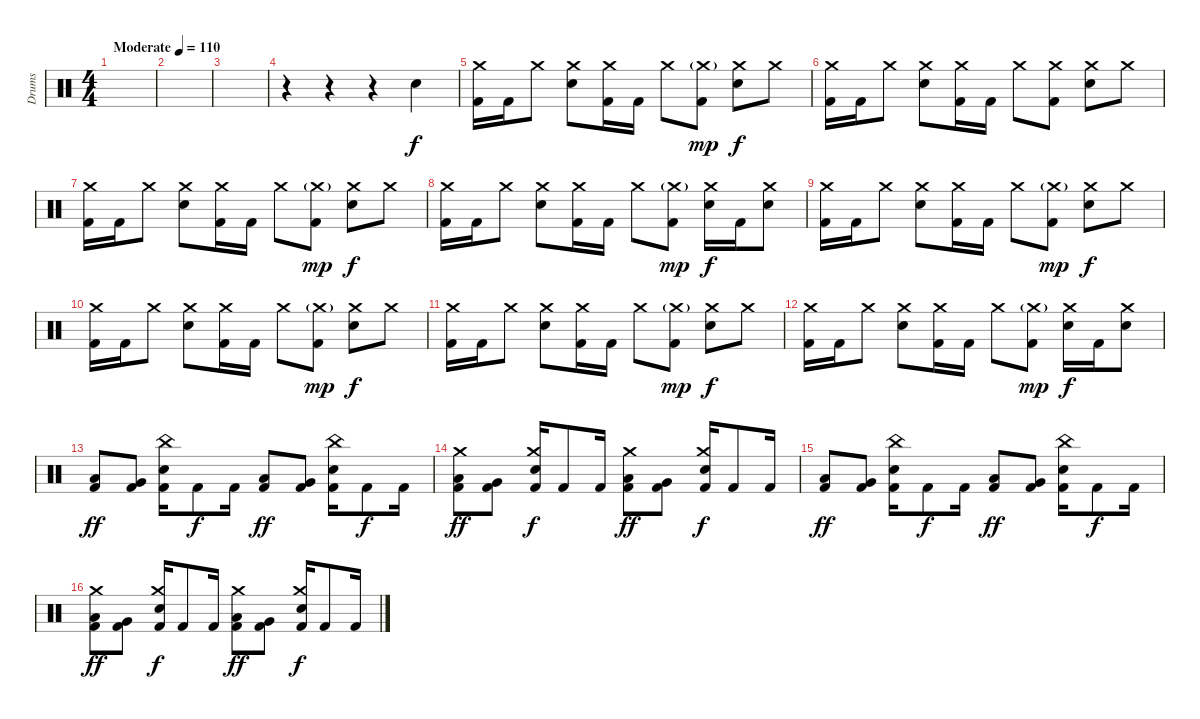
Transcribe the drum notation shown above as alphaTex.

\track ("Drums" "Drums") {instrument percussion}
\staff {score}
\articulation defaults
\ts (4 4)
\tempo (110 "Moderate")
\clef neutral
\ks c
|
|
|
r.4 r.4 r.4 "Snare (hit) 2".4 |
("Crash medium (hit)" "Kick (hit) 2").16 "Kick (hit) 2".16 "Crash medium (hit)".8 ("Crash medium (hit)" "Snare (hit) 2").8 ("Crash medium (hit)" "Kick (hit) 2").16 "Kick (hit) 2".16 "Crash medium (hit)".8 ("Crash medium (hit)"{g} "Kick (hit) 2").8{dy mp} ("Crash medium (hit)" "Snare (hit) 2").8{dy f} "Crash medium (hit)".8 |
("Crash medium (hit)" "Kick (hit) 2").16 "Kick (hit) 2".16 "Crash medium (hit)".8 ("Crash medium (hit)" "Snare (hit) 2").8 ("Crash medium (hit)" "Kick (hit) 2").16 "Kick (hit) 2".16 "Crash medium (hit)".8 ("Crash medium (hit)" "Kick (hit) 2").8 ("Crash medium (hit)" "Snare (hit) 2").8 "Crash medium (hit)".8 |
("Crash medium (hit)" "Kick (hit) 2").16 "Kick (hit) 2".16 "Crash medium (hit)".8 ("Crash medium (hit)" "Snare (hit) 2").8 ("Crash medium (hit)" "Kick (hit) 2").16 "Kick (hit) 2".16 "Crash medium (hit)".8 ("Crash medium (hit)"{g} "Kick (hit) 2").8{dy mp} ("Crash medium (hit)" "Snare (hit) 2").8{dy f} "Crash medium (hit)".8 |
("Crash medium (hit)" "Kick (hit) 2").16 "Kick (hit) 2".16 "Crash medium (hit)".8 ("Crash medium (hit)" "Snare (hit) 2").8 ("Crash medium (hit)" "Kick (hit) 2").16 "Kick (hit) 2".16 "Crash medium (hit)".8 ("Crash medium (hit)"{g} "Kick (hit) 2").8{dy mp} ("Crash medium (hit)" "Snare (hit) 2").16{dy f} "Kick (hit) 2".16 ("Crash medium (hit)" "Snare (hit) 2").8 |
("Crash medium (hit)" "Kick (hit) 2").16 "Kick (hit) 2".16 "Crash medium (hit)".8 ("Crash medium (hit)" "Snare (hit) 2").8 ("Crash medium (hit)" "Kick (hit) 2").16 "Kick (hit) 2".16 "Crash medium (hit)".8 ("Crash medium (hit)"{g} "Kick (hit) 2").8{dy mp} ("Crash medium (hit)" "Snare (hit) 2").8{dy f} "Crash medium (hit)".8 |
("Crash medium (hit)" "Kick (hit) 2").16 "Kick (hit) 2".16 "Crash medium (hit)".8 ("Crash medium (hit)" "Snare (hit) 2").8 ("Crash medium (hit)" "Kick (hit) 2").16 "Kick (hit) 2".16 "Crash medium (hit)".8 ("Crash medium (hit)"{g} "Kick (hit) 2").8{dy mp} ("Crash medium (hit)" "Snare (hit) 2").8{dy f} "Crash medium (hit)".8 |
("Crash medium (hit)" "Kick (hit) 2").16 "Kick (hit) 2".16 "Crash medium (hit)".8 ("Crash medium (hit)" "Snare (hit) 2").8 ("Crash medium (hit)" "Kick (hit) 2").16 "Kick (hit) 2".16 "Crash medium (hit)".8 ("Crash medium (hit)"{g} "Kick (hit) 2").8{dy mp} ("Crash medium (hit)" "Snare (hit) 2").8{dy f} "Crash medium (hit)".8 |
("Crash medium (hit)" "Kick (hit) 2").16 "Kick (hit) 2".16 "Crash medium (hit)".8 ("Crash medium (hit)" "Snare (hit) 2").8 ("Crash medium (hit)" "Kick (hit) 2").16 "Kick (hit) 2".16 "Crash medium (hit)".8 ("Crash medium (hit)"{g} "Kick (hit) 2").8{dy mp} ("Crash medium (hit)" "Snare (hit) 2").16{dy f} "Kick (hit) 2".16 ("Crash medium (hit)" "Snare (hit) 2").8 |
("Low Tom (hit)" "Kick (hit) 2").8{dy ff} ("Very Low Tom (hit)" "Kick (hit) 2").8 ("China (hit)" "Snare (hit) 2" "Kick (hit) 2").16 "Kick (hit) 2".8{dy f} "Kick (hit) 2".16 ("Low Tom (hit)" "Kick (hit) 2").8{dy ff} ("Very Low Tom (hit)" "Kick (hit) 2").8 ("China (hit)" "Snare (hit) 2" "Kick (hit) 2").16 "Kick (hit) 2".8{dy f} "Kick (hit) 2".16 |
("Crash medium (hit)" "Low Tom (hit)" "Kick (hit) 2").8{dy ff} ("Very Low Tom (hit)" "Kick (hit) 2").8 ("Crash medium (hit)" "Snare (hit) 2" "Kick (hit) 2").16{dy f} "Kick (hit) 2".8 "Kick (hit) 2".16 ("Crash medium (hit)" "Low Tom (hit)" "Kick (hit) 2").8{dy ff} ("Very Low Tom (hit)" "Kick (hit) 2").8 ("Crash medium (hit)" "Snare (hit) 2" "Kick (hit) 2").16{dy f} "Kick (hit) 2".8 "Kick (hit) 2".16 |
("Low Tom (hit)" "Kick (hit) 2").8{dy ff} ("Very Low Tom (hit)" "Kick (hit) 2").8 ("China (hit)" "Snare (hit) 2" "Kick (hit) 2").16 "Kick (hit) 2".8{dy f} "Kick (hit) 2".16 ("Low Tom (hit)" "Kick (hit) 2").8{dy ff} ("Very Low Tom (hit)" "Kick (hit) 2").8 ("China (hit)" "Snare (hit) 2" "Kick (hit) 2").16 "Kick (hit) 2".8{dy f} "Kick (hit) 2".16 |
("Crash medium (hit)" "Low Tom (hit)" "Kick (hit) 2").8{dy ff} ("Very Low Tom (hit)" "Kick (hit) 2").8 ("Crash medium (hit)" "Snare (hit) 2" "Kick (hit) 2").16{dy f} "Kick (hit) 2".8 "Kick (hit) 2".16 ("Crash medium (hit)" "Low Tom (hit)" "Kick (hit) 2").8{dy ff} ("Very Low Tom (hit)" "Kick (hit) 2").8 ("Crash medium (hit)" "Snare (hit) 2" "Kick (hit) 2").16{dy f} "Kick (hit) 2".8 "Kick (hit) 2".16
